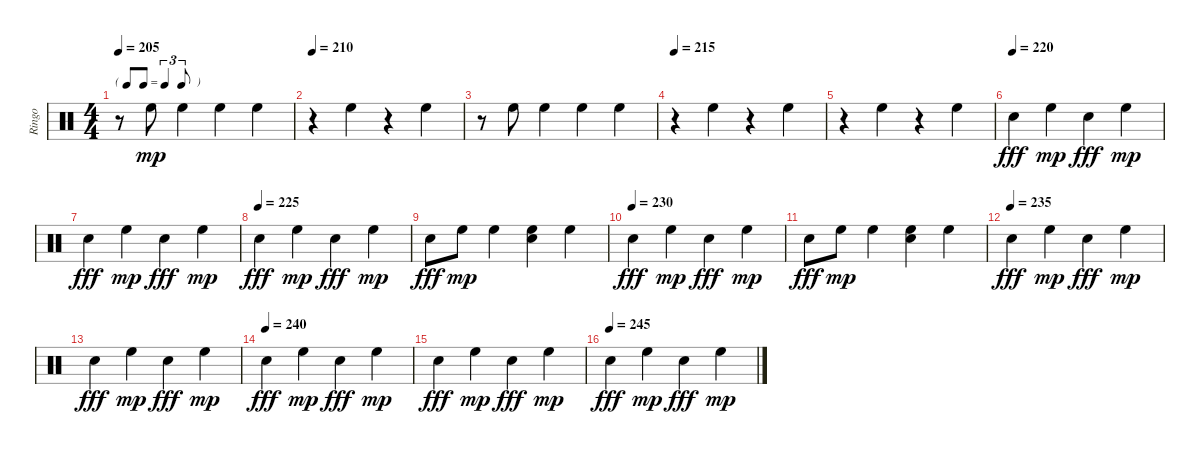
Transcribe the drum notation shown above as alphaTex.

\track ("Ringo" "Ringo") {instrument percussion}
\staff {score}
\articulation defaults
\ts (4 4)
\tf triplet8th
\tempo 205
\clef neutral
\ks c
r.8{dy mp} "High Floor Tom (hit)".8 "High Floor Tom (hit)".4 "High Floor Tom (hit)".4 "High Floor Tom (hit)".4 |
\tempo 210
r.4 "High Floor Tom (hit)".4 r.4 "High Floor Tom (hit)".4 |
r.8 "High Floor Tom (hit)".8 "High Floor Tom (hit)".4 "High Floor Tom (hit)".4 "High Floor Tom (hit)".4 |
\tempo 215
r.4 "High Floor Tom (hit)".4 r.4 "High Floor Tom (hit)".4 |
r.4 "High Floor Tom (hit)".4 r.4 "High Floor Tom (hit)".4 |
\tempo (220)
"Hand Clap (hit)".4{dy fff} "High Floor Tom (hit)".4{dy mp} "Hand Clap (hit)".4{dy fff} "High Floor Tom (hit)".4{dy mp} |
"Hand Clap (hit)".4{dy fff} "High Floor Tom (hit)".4{dy mp} "Hand Clap (hit)".4{dy fff} "High Floor Tom (hit)".4{dy mp} |
\tempo (225)
"Hand Clap (hit)".4{dy fff} "High Floor Tom (hit)".4{dy mp} "Hand Clap (hit)".4{dy fff} "High Floor Tom (hit)".4{dy mp} |
"Hand Clap (hit)".8{dy fff} "High Floor Tom (hit)".8{dy mp} "High Floor Tom (hit)".4 ("Hand Clap (hit)" "High Floor Tom (hit)").4 "High Floor Tom (hit)".4 |
\tempo (230)
"Hand Clap (hit)".4{dy fff} "High Floor Tom (hit)".4{dy mp} "Hand Clap (hit)".4{dy fff} "High Floor Tom (hit)".4{dy mp} |
"Hand Clap (hit)".8{dy fff} "High Floor Tom (hit)".8{dy mp} "High Floor Tom (hit)".4 ("Hand Clap (hit)" "High Floor Tom (hit)").4 "High Floor Tom (hit)".4 |
\tempo (235)
"Hand Clap (hit)".4{dy fff} "High Floor Tom (hit)".4{dy mp} "Hand Clap (hit)".4{dy fff} "High Floor Tom (hit)".4{dy mp} |
"Hand Clap (hit)".4{dy fff} "High Floor Tom (hit)".4{dy mp} "Hand Clap (hit)".4{dy fff} "High Floor Tom (hit)".4{dy mp} |
\tempo (240)
"Hand Clap (hit)".4{dy fff} "High Floor Tom (hit)".4{dy mp} "Hand Clap (hit)".4{dy fff} "High Floor Tom (hit)".4{dy mp} |
"Hand Clap (hit)".4{dy fff} "High Floor Tom (hit)".4{dy mp} "Hand Clap (hit)".4{dy fff} "High Floor Tom (hit)".4{dy mp} |
\tempo (245)
"Hand Clap (hit)".4{dy fff} "High Floor Tom (hit)".4{dy mp} "Hand Clap (hit)".4{dy fff} "High Floor Tom (hit)".4{dy mp}
